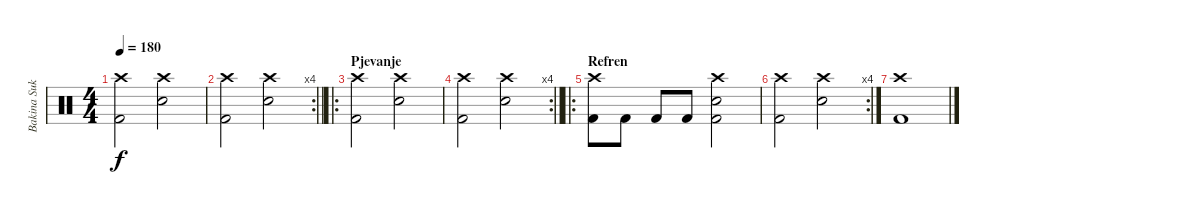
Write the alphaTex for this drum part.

\track ("Bakina Sukrvica" "Bakina Suk") {instrument percussion}
\staff {score}
\articulation defaults
\ts (4 4)
\tempo 180
\clef neutral
\ks c
("Crash high (hit)" "Kick (hit) 2").2{dy f} ("Crash high (hit)" "Electric Snare (hit)").2 |
\rc 4
\barLineRight lightlight
("Crash high (hit)" "Kick (hit) 2").2 ("Crash high (hit)" "Electric Snare (hit)").2 |
\ro
\section ("" "Pjevanje")
("Crash high (hit)" "Kick (hit) 2").2 ("Crash high (hit)" "Electric Snare (hit)").2 |
\rc 4
\barLineRight lightlight
("Crash high (hit)" "Kick (hit) 2").2 ("Crash high (hit)" "Electric Snare (hit)").2 |
\ro
\section ("" "Refren")
("Crash high (hit)" "Kick (hit) 2").8 "Kick (hit) 2".8 "Kick (hit) 2".8 "Kick (hit) 2".8 ("Crash high (hit)" "Electric Snare (hit)" "Kick (hit) 2").2 |
\rc 4
("Crash high (hit)" "Kick (hit) 2").2 ("Crash high (hit)" "Electric Snare (hit)").2 |
("Crash high (hit)" "Kick (hit) 2").1
